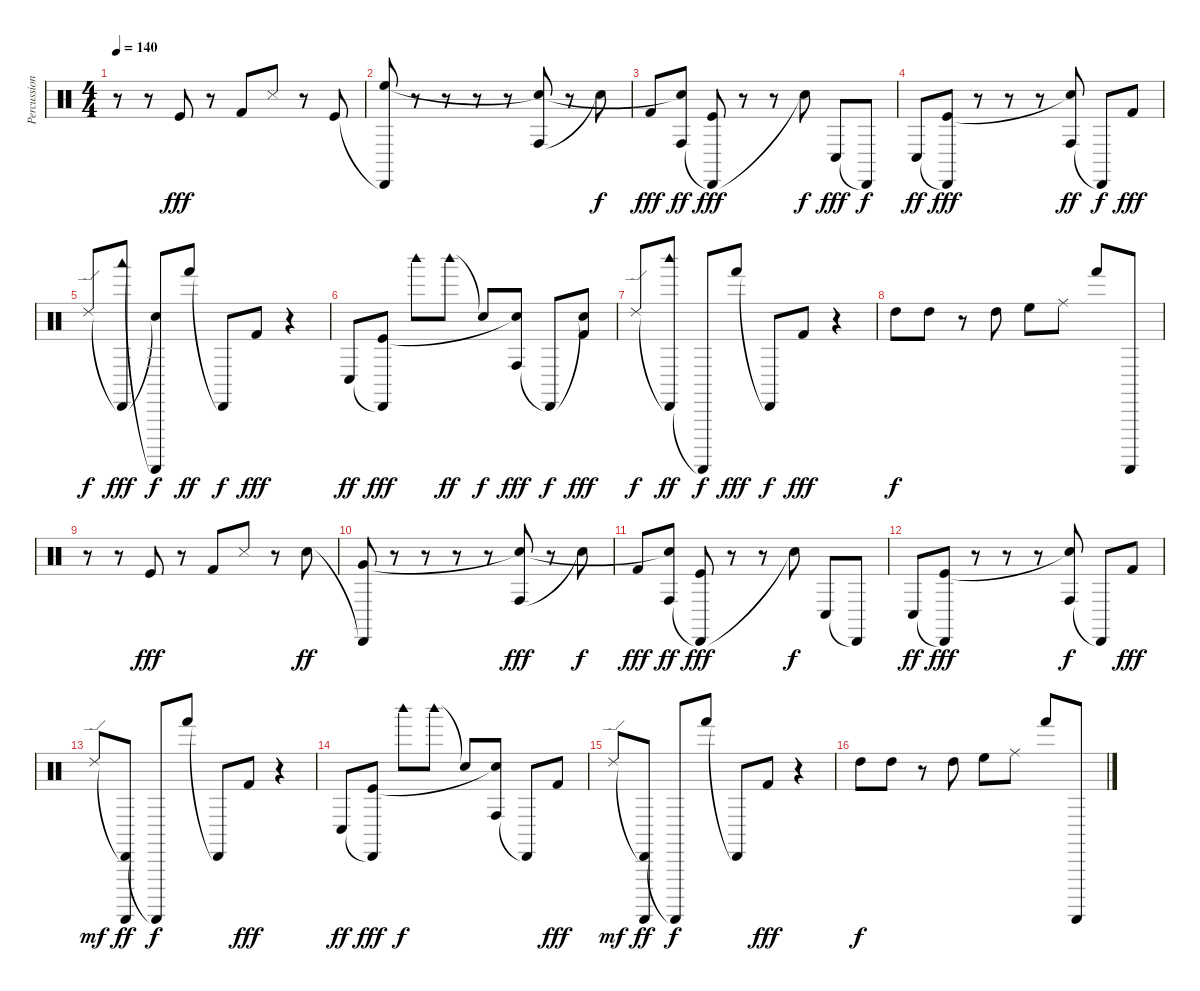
\track ("Percussions" "Percussion") {instrument percussion}
\staff {score}
\articulation defaults
\ts (4 4)
\tempo 140
\clef neutral
\ks c
r.8{dy f} r.8 "Kick (hit)".8{dy fff balance 1} r.8 "Kick (hit) 2".8{balance 13} "Snare (side stick) 3".8{balance 6} r.8 "Kick (hit)".8{balance 1} |
("Cabasa (hit)"{t} "High Floor Tom (hit)").8{balance 0} r.8 r.8 r.8 r.8 ("Conga high (hit)" "Snare (hit)"{t}).8{balance 16} r.8 "Snare (hit)"{t}.8{dy f} |
"Kick (hit) 2".8{dy fff balance 12} ("Conga high (hit)" "Snare (hit)"{t}).8{dy ff balance 15} ("Cabasa (hit)"{t} "Kick (hit)").8{dy fff balance 1} r.8 r.8 "Snare (hit)"{t}.8{dy f} "Conga low (hit)".8{dy fff} "Cabasa (hit)"{t}.8{dy f} |
"Conga low (hit)".8{dy ff balance 0} ("Cabasa (hit)"{t} "Kick (hit)").8{dy fff balance 1} r.8 r.8 r.8 ("Conga high (hit)" "Snare (hit)"{t}).8{dy ff balance 1} "Cabasa (hit)"{t}.8{dy f} "Kick (hit) 2".8{dy fff balance 2} |
"Ride (edge) 2".8{dy f balance 0} ("Cabasa (hit)"{t} "Woodblock low (hit)").8{dy fff balance 16} ("Snare (hit)"{t} "Guiro (scrap-return)"{t}).8{dy f} "Hand (hit)".8{dy ff balance 0} "Cabasa (hit)"{t}.8{dy f} "Kick (hit) 2".8{dy fff balance 15} r.4 |
"Conga low (hit)".8{dy ff} ("Cabasa (hit)"{t} "Kick (hit)").8{dy fff balance 1} "Woodblock high (hit)".8{balance 0} "Woodblock high (hit)".8{dy ff balance 16} "Snare (hit)"{t}.8{dy f} ("Conga high (hit)" "Snare (hit)"{t}).8{dy fff balance 16} "Cabasa (hit)"{t}.8{dy f} ("Snare (hit)"{t} "Kick (hit) 2").8{dy fff} |
"Ride (edge) 2".8{dy f} ("Cabasa (hit)"{t} "Woodblock high (hit)").8{dy ff} "Guiro (scrap-return)"{t}.8{dy f} "Hand (hit)".8{dy fff balance 0} "Cabasa (hit)"{t}.8{dy f} "Kick (hit) 2".8{dy fff} r.4 |
"High Tom (hit)".8{dy f balance 9} "High Tom (hit)".8{balance 6} r.8 "High Tom (hit)".8{balance 2} "High Floor Tom (hit)".8{balance 4} "Ride (middle)".8{balance 6} "Hand (hit)".8{balance 11} "Guiro (scrap-return)".8{balance 15} |
r.8 r.8 "Kick (hit)".8{dy fff balance 6} r.8 "Kick (hit) 2".8 "Snare (side stick) 3".8 r.8 "Electric Snare (hit)".8{dy ff} |
("Cabasa (hit)"{t} "Very Low Tom (hit)").8 r.8 r.8 r.8 r.8 ("Conga high (hit)" "Snare (hit)"{t}).8{dy fff} r.8 "Snare (hit)"{t}.8{dy f} |
"Kick (hit) 2".8{dy fff} ("Conga high (hit)" "Snare (hit)"{t}).8{dy ff} ("Cabasa (hit)"{t} "Kick (hit)").8{dy fff} r.8 r.8 "Snare (hit)"{t}.8{dy f} "Conga low (hit)".8 "Cabasa (hit)"{t}.8 |
"Conga low (hit)".8{dy ff} ("Cabasa (hit)"{t} "Kick (hit)").8{dy fff} r.8 r.8 r.8 ("Conga high (hit)" "Snare (hit)"{t}).8{dy f} "Cabasa (hit)"{t}.8 "Kick (hit) 2".8{dy fff} |
"Ride (edge) 2".8{dy mf} ("Cabasa (hit)"{t} "Guiro (scrap-return)").8{dy ff} "Guiro (scrap-return)"{t}.8{dy f} "Hand (hit)".8 "Cabasa (hit)"{t}.8 "Kick (hit) 2".8{dy fff} r.4 |
"Conga low (hit)".8{dy ff} ("Cabasa (hit)"{t} "Kick (hit)").8{dy fff} "Woodblock high (hit)".8{dy f} "Woodblock high (hit)".8 "Snare (hit)"{t}.8 ("Conga high (hit)" "Snare (hit)"{t}).8 "Cabasa (hit)"{t}.8 "Kick (hit) 2".8{dy fff} |
"Ride (edge) 2".8{dy mf} ("Cabasa (hit)"{t} "Guiro (scrap-return)").8{dy ff} "Guiro (scrap-return)"{t}.8{dy f} "Hand (hit)".8 "Cabasa (hit)"{t}.8 "Kick (hit) 2".8{dy fff} r.4 |
"High Tom (hit)".8{dy f} "High Tom (hit)".8 r.8 "High Tom (hit)".8 "High Floor Tom (hit)".8 "Ride (middle)".8 "Hand (hit)".8 "Guiro (scrap-return)".8
